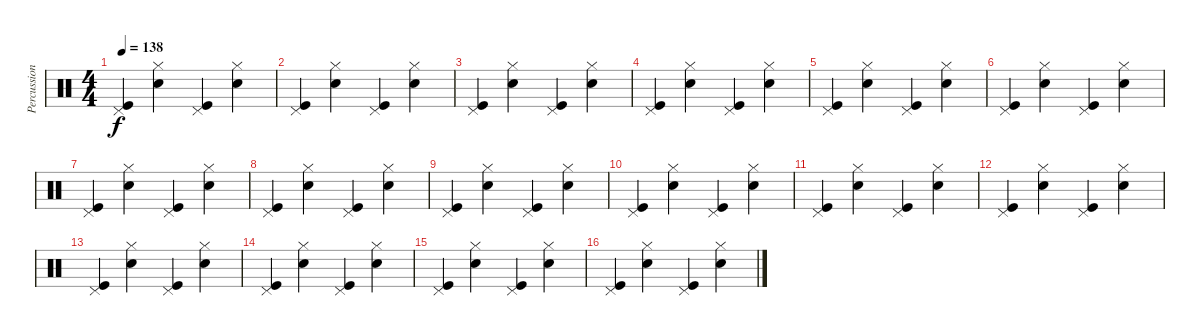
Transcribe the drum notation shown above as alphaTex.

\track ("Percussions" "Percussion") {instrument percussion}
\staff {score}
\articulation defaults
\ts (4 4)
\tempo 138
\clef neutral
\ks c
("Pedal Hi-Hat (hit)" "Kick (hit)").4{dy f} ("Hi-Hat (closed)" "Snare (hit) 2").4 ("Pedal Hi-Hat (hit)" "Kick (hit)").4 ("Hi-Hat (closed)" "Snare (hit) 2").4 |
("Pedal Hi-Hat (hit)" "Kick (hit)").4 ("Hi-Hat (closed)" "Snare (hit) 2").4 ("Pedal Hi-Hat (hit)" "Kick (hit)").4 ("Hi-Hat (closed)" "Snare (hit) 2").4 |
("Pedal Hi-Hat (hit)" "Kick (hit)").4 ("Hi-Hat (closed)" "Snare (hit) 2").4 ("Pedal Hi-Hat (hit)" "Kick (hit)").4 ("Hi-Hat (closed)" "Snare (hit) 2").4 |
("Pedal Hi-Hat (hit)" "Kick (hit)").4 ("Hi-Hat (closed)" "Snare (hit) 2").4 ("Pedal Hi-Hat (hit)" "Kick (hit)").4 ("Hi-Hat (closed)" "Snare (hit) 2").4 |
("Pedal Hi-Hat (hit)" "Kick (hit)").4 ("Hi-Hat (closed)" "Snare (hit) 2").4 ("Pedal Hi-Hat (hit)" "Kick (hit)").4 ("Hi-Hat (closed)" "Snare (hit) 2").4 |
("Pedal Hi-Hat (hit)" "Kick (hit)").4 ("Hi-Hat (closed)" "Snare (hit) 2").4 ("Pedal Hi-Hat (hit)" "Kick (hit)").4 ("Hi-Hat (closed)" "Snare (hit) 2").4 |
("Pedal Hi-Hat (hit)" "Kick (hit)").4 ("Hi-Hat (closed)" "Snare (hit) 2").4 ("Pedal Hi-Hat (hit)" "Kick (hit)").4 ("Hi-Hat (closed)" "Snare (hit) 2").4 |
("Pedal Hi-Hat (hit)" "Kick (hit)").4 ("Hi-Hat (closed)" "Snare (hit) 2").4 ("Pedal Hi-Hat (hit)" "Kick (hit)").4 ("Hi-Hat (closed)" "Snare (hit) 2").4 |
("Pedal Hi-Hat (hit)" "Kick (hit)").4 ("Hi-Hat (closed)" "Snare (hit) 2").4 ("Pedal Hi-Hat (hit)" "Kick (hit)").4 ("Hi-Hat (closed)" "Snare (hit) 2").4 |
("Pedal Hi-Hat (hit)" "Kick (hit)").4 ("Hi-Hat (closed)" "Snare (hit) 2").4 ("Pedal Hi-Hat (hit)" "Kick (hit)").4 ("Hi-Hat (closed)" "Snare (hit) 2").4 |
("Pedal Hi-Hat (hit)" "Kick (hit)").4 ("Hi-Hat (closed)" "Snare (hit) 2").4 ("Pedal Hi-Hat (hit)" "Kick (hit)").4 ("Hi-Hat (closed)" "Snare (hit) 2").4 |
("Pedal Hi-Hat (hit)" "Kick (hit)").4 ("Hi-Hat (closed)" "Snare (hit) 2").4 ("Pedal Hi-Hat (hit)" "Kick (hit)").4 ("Hi-Hat (closed)" "Snare (hit) 2").4 |
("Pedal Hi-Hat (hit)" "Kick (hit)").4 ("Hi-Hat (closed)" "Snare (hit) 2").4 ("Pedal Hi-Hat (hit)" "Kick (hit)").4 ("Hi-Hat (closed)" "Snare (hit) 2").4 |
("Pedal Hi-Hat (hit)" "Kick (hit)").4 ("Hi-Hat (closed)" "Snare (hit) 2").4 ("Pedal Hi-Hat (hit)" "Kick (hit)").4 ("Hi-Hat (closed)" "Snare (hit) 2").4 |
("Pedal Hi-Hat (hit)" "Kick (hit)").4 ("Hi-Hat (closed)" "Snare (hit) 2").4 ("Pedal Hi-Hat (hit)" "Kick (hit)").4 ("Hi-Hat (closed)" "Snare (hit) 2").4 |
("Pedal Hi-Hat (hit)" "Kick (hit)").4 ("Hi-Hat (closed)" "Snare (hit) 2").4 ("Pedal Hi-Hat (hit)" "Kick (hit)").4 ("Hi-Hat (closed)" "Snare (hit) 2").4
